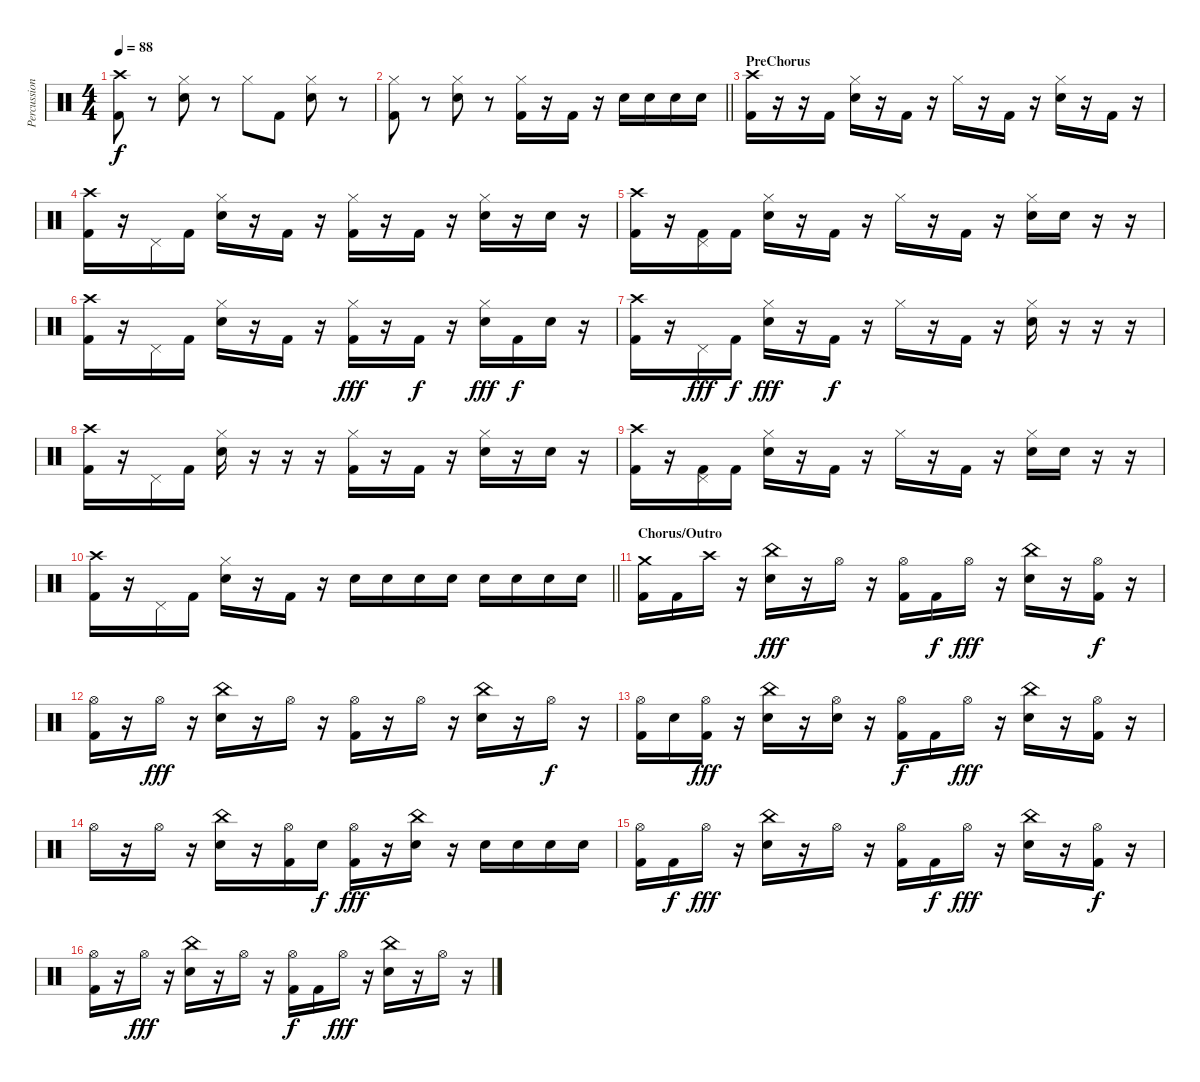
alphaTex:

\track ("Percussion" "Percussion") {instrument percussion}
\staff {score}
\articulation defaults
\ts (4 4)
\tempo 88
\clef neutral
\ks c
("Crash high (hit)" "Kick (hit) 2").8{dy f} r.8 ("Hi-Hat (closed)" "Snare (hit) 2").8 r.8 "Hi-Hat (closed)".8 "Kick (hit) 2".8 ("Hi-Hat (closed)" "Snare (hit) 2").8 r.8 |
\barLineRight lightlight
("Hi-Hat (closed)" "Kick (hit) 2").8 r.8 ("Hi-Hat (closed)" "Snare (hit) 2").8 r.8 ("Hi-Hat (closed)" "Kick (hit) 2").16 r.16 "Kick (hit) 2".16 r.16 "Snare (hit) 2".16 "Snare (hit) 2".16 "Snare (hit) 2".16 "Snare (hit) 2".16 |
\section ("" "PreChorus")
("Crash high (hit)" "Kick (hit) 2").16 r.16 r.16 "Kick (hit) 2".16 ("Hi-Hat (closed)" "Snare (hit) 2").16 r.16 "Kick (hit) 2".16 r.16 "Hi-Hat (closed)".16 r.16 "Kick (hit) 2".16 r.16 ("Hi-Hat (closed)" "Snare (hit) 2").16 r.16 "Kick (hit) 2".16 r.16 |
("Crash high (hit)" "Kick (hit) 2").16 r.16 "Pedal Hi-Hat (hit)".16 "Kick (hit) 2".16 ("Hi-Hat (closed)" "Snare (hit) 2").16 r.16 "Kick (hit) 2".16 r.16 ("Hi-Hat (closed)" "Kick (hit) 2").16 r.16 "Kick (hit) 2".16 r.16 ("Hi-Hat (closed)" "Snare (hit) 2").16 r.16 "Snare (hit) 2".16 r.16 |
("Crash high (hit)" "Kick (hit) 2").16 r.16 ("Pedal Hi-Hat (hit)" "Kick (hit) 2").16 "Kick (hit) 2".16 ("Hi-Hat (closed)" "Snare (hit) 2").16 r.16 "Kick (hit) 2".16 r.16 "Hi-Hat (closed)".16 r.16 "Kick (hit) 2".16 r.16 ("Hi-Hat (closed)" "Snare (hit) 2").16 "Snare (hit) 2".16 r.16 r.16 |
("Crash high (hit)" "Kick (hit) 2").16 r.16 "Pedal Hi-Hat (hit)".16 "Kick (hit) 2".16 ("Hi-Hat (closed)" "Snare (hit) 2").16 r.16 "Kick (hit) 2".16 r.16 ("Hi-Hat (closed)" "Kick (hit) 2").16{dy fff} r.16 "Kick (hit) 2".16{dy f} r.16 ("Hi-Hat (closed)" "Snare (hit) 2").16{dy fff} "Kick (hit) 2".16{dy f} "Snare (hit) 2".16 r.16 |
("Crash high (hit)" "Kick (hit) 2").16 r.16 "Pedal Hi-Hat (hit)".16{dy fff} "Kick (hit) 2".16{dy f} ("Hi-Hat (closed)" "Snare (hit) 2").16{dy fff} r.16 "Kick (hit) 2".16{dy f} r.16 "Hi-Hat (closed)".16 r.16 "Kick (hit) 2".16 r.16 ("Hi-Hat (closed)" "Snare (hit) 2").16 r.16 r.16 r.16 |
("Crash high (hit)" "Kick (hit) 2").16 r.16 "Pedal Hi-Hat (hit)".16 "Kick (hit) 2".16 ("Hi-Hat (closed)" "Snare (hit) 2").16 r.16 r.16 r.16 ("Hi-Hat (closed)" "Kick (hit) 2").16 r.16 "Kick (hit) 2".16 r.16 ("Hi-Hat (closed)" "Snare (hit) 2").16 r.16 "Snare (hit) 2".16 r.16 |
("Crash high (hit)" "Kick (hit) 2").16 r.16 ("Pedal Hi-Hat (hit)" "Kick (hit) 2").16 "Kick (hit) 2".16 ("Hi-Hat (closed)" "Snare (hit) 2").16 r.16 "Kick (hit) 2".16 r.16 "Hi-Hat (closed)".16 r.16 "Kick (hit) 2".16 r.16 ("Hi-Hat (closed)" "Snare (hit) 2").16 "Snare (hit) 2".16 r.16 r.16 |
\barLineRight lightlight
("Crash high (hit)" "Kick (hit) 2").16 r.16 "Pedal Hi-Hat (hit)".16 "Kick (hit) 2".16 ("Hi-Hat (closed)" "Snare (hit) 2").16 r.16 "Kick (hit) 2".16 r.16 "Snare (hit) 2".16 "Snare (hit) 2".16 "Snare (hit) 2".16 "Snare (hit) 2".16 "Snare (hit) 2".16 "Snare (hit) 2".16 "Snare (hit) 2".16 "Snare (hit) 2".16 |
\section ("" "Chorus/Outro")
("Crash medium (hit)" "Kick (hit) 2").16{volume 12} "Kick (hit) 2".16 "Crash high (hit)".16 r.16 ("China (hit)" "Snare (hit) 2").16{dy fff} r.16 "Hi-Hat (open)".16 r.16 ("Hi-Hat (open)" "Kick (hit) 2").16 "Kick (hit) 2".16{dy f} "Hi-Hat (open)".16{dy fff} r.16 ("China (hit)" "Snare (hit) 2").16 r.16 ("Hi-Hat (open)" "Kick (hit) 2").16{dy f} r.16 |
("Hi-Hat (open)" "Kick (hit) 2").16 r.16 "Hi-Hat (open)".16{dy fff} r.16 ("China (hit)" "Snare (hit) 2").16 r.16 "Hi-Hat (open)".16 r.16 ("Hi-Hat (open)" "Kick (hit) 2").16 r.16 "Hi-Hat (open)".16 r.16 ("China (hit)" "Snare (hit) 2").16 r.16 "Hi-Hat (open)".16{dy f} r.16 |
("Hi-Hat (open)" "Kick (hit) 2").16 "Snare (hit) 2".16 ("Hi-Hat (open)" "Kick (hit) 2").16{dy fff} r.16 ("China (hit)" "Snare (hit) 2").16 r.16 ("Hi-Hat (open)" "Snare (hit) 2").16 r.16 ("Hi-Hat (open)" "Kick (hit) 2").16{dy f} "Kick (hit) 2".16 "Hi-Hat (open)".16{dy fff} r.16 ("China (hit)" "Snare (hit) 2").16 r.16 ("Hi-Hat (open)" "Kick (hit) 2").16 r.16 |
"Hi-Hat (open)".16 r.16 "Hi-Hat (open)".16 r.16 ("China (hit)" "Snare (hit) 2").16 r.16 ("Hi-Hat (open)" "Kick (hit) 2").16 "Snare (hit) 2".16{dy f} ("Hi-Hat (open)" "Kick (hit) 2").16{dy fff} r.16 ("China (hit)" "Snare (hit) 2").16 r.16 "Snare (hit) 2".16 "Snare (hit) 2".16 "Snare (hit) 2".16 "Snare (hit) 2".16 |
("Hi-Hat (open)" "Kick (hit) 2").16 "Kick (hit) 2".16{dy f} "Hi-Hat (open)".16{dy fff} r.16 ("China (hit)" "Snare (hit) 2").16 r.16 "Hi-Hat (open)".16 r.16 ("Hi-Hat (open)" "Kick (hit) 2").16 "Kick (hit) 2".16{dy f} "Hi-Hat (open)".16{dy fff} r.16 ("China (hit)" "Snare (hit) 2").16 r.16 ("Hi-Hat (open)" "Kick (hit) 2").16{dy f} r.16 |
("Hi-Hat (open)" "Kick (hit) 2").16 r.16 "Hi-Hat (open)".16{dy fff} r.16 ("China (hit)" "Snare (hit) 2").16 r.16 "Hi-Hat (open)".16 r.16 ("Hi-Hat (open)" "Kick (hit) 2").16{dy f} "Kick (hit) 2".16 "Hi-Hat (open)".16{dy fff} r.16 ("China (hit)" "Snare (hit) 2").16 r.16 "Hi-Hat (open)".16 r.16
